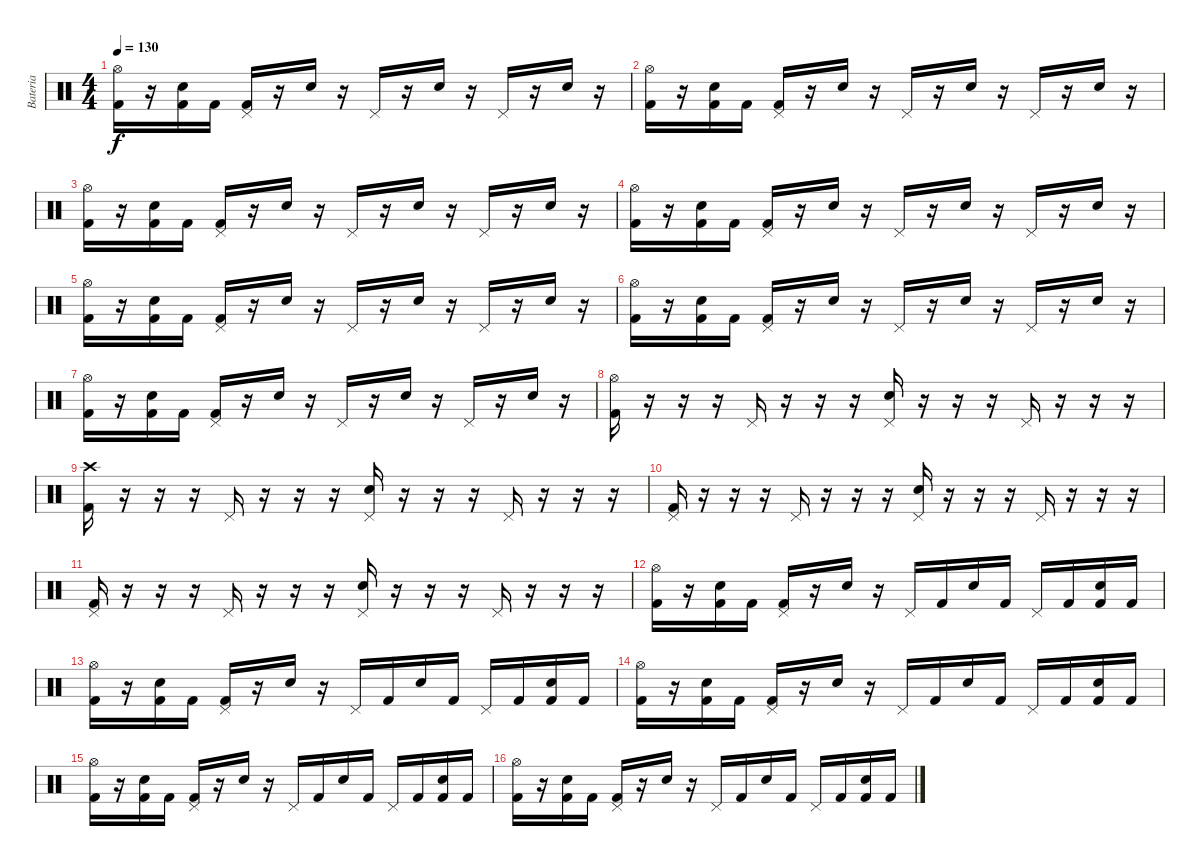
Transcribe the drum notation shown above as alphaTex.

\track ("Bateria" "Bateria") {instrument percussion}
\staff {score}
\articulation defaults
\ts (4 4)
\tempo 130
\clef neutral
\ks c
("Hi-Hat (open)" "Kick (hit) 2").16{dy f} r.16 ("Snare (hit) 2" "Kick (hit) 2").16 "Kick (hit) 2".16 ("Pedal Hi-Hat (hit)" "Kick (hit) 2").16 r.16 "Snare (hit) 2".16 r.16 "Pedal Hi-Hat (hit)".16 r.16 "Snare (hit) 2".16 r.16 "Pedal Hi-Hat (hit)".16 r.16 "Snare (hit) 2".16 r.16 |
("Hi-Hat (open)" "Kick (hit) 2").16 r.16 ("Snare (hit) 2" "Kick (hit) 2").16 "Kick (hit) 2".16 ("Pedal Hi-Hat (hit)" "Kick (hit) 2").16 r.16 "Snare (hit) 2".16 r.16 "Pedal Hi-Hat (hit)".16 r.16 "Snare (hit) 2".16 r.16 "Pedal Hi-Hat (hit)".16 r.16 "Snare (hit) 2".16 r.16 |
("Hi-Hat (open)" "Kick (hit) 2").16 r.16 ("Snare (hit) 2" "Kick (hit) 2").16 "Kick (hit) 2".16 ("Pedal Hi-Hat (hit)" "Kick (hit) 2").16 r.16 "Snare (hit) 2".16 r.16 "Pedal Hi-Hat (hit)".16 r.16 "Snare (hit) 2".16 r.16 "Pedal Hi-Hat (hit)".16 r.16 "Snare (hit) 2".16 r.16 |
("Hi-Hat (open)" "Kick (hit) 2").16 r.16 ("Snare (hit) 2" "Kick (hit) 2").16 "Kick (hit) 2".16 ("Pedal Hi-Hat (hit)" "Kick (hit) 2").16 r.16 "Snare (hit) 2".16 r.16 "Pedal Hi-Hat (hit)".16 r.16 "Snare (hit) 2".16 r.16 "Pedal Hi-Hat (hit)".16 r.16 "Snare (hit) 2".16 r.16 |
("Hi-Hat (open)" "Kick (hit) 2").16 r.16 ("Snare (hit) 2" "Kick (hit) 2").16 "Kick (hit) 2".16 ("Pedal Hi-Hat (hit)" "Kick (hit) 2").16 r.16 "Snare (hit) 2".16 r.16 "Pedal Hi-Hat (hit)".16 r.16 "Snare (hit) 2".16 r.16 "Pedal Hi-Hat (hit)".16 r.16 "Snare (hit) 2".16 r.16 |
("Hi-Hat (open)" "Kick (hit) 2").16 r.16 ("Snare (hit) 2" "Kick (hit) 2").16 "Kick (hit) 2".16 ("Pedal Hi-Hat (hit)" "Kick (hit) 2").16 r.16 "Snare (hit) 2".16 r.16 "Pedal Hi-Hat (hit)".16 r.16 "Snare (hit) 2".16 r.16 "Pedal Hi-Hat (hit)".16 r.16 "Snare (hit) 2".16 r.16 |
("Hi-Hat (open)" "Kick (hit) 2").16 r.16 ("Snare (hit) 2" "Kick (hit) 2").16 "Kick (hit) 2".16 ("Pedal Hi-Hat (hit)" "Kick (hit) 2").16 r.16 "Snare (hit) 2".16 r.16 "Pedal Hi-Hat (hit)".16 r.16 "Snare (hit) 2".16 r.16 "Pedal Hi-Hat (hit)".16 r.16 "Snare (hit) 2".16 r.16 |
("Hi-Hat (open)" "Kick (hit) 2").16 r.16 r.16 r.16 "Pedal Hi-Hat (hit)".16 r.16 r.16 r.16 ("Pedal Hi-Hat (hit)" "Snare (hit) 2").16 r.16 r.16 r.16 "Pedal Hi-Hat (hit)".16 r.16 r.16 r.16 |
("Crash high (hit)" "Kick (hit) 2").16 r.16 r.16 r.16 "Pedal Hi-Hat (hit)".16 r.16 r.16 r.16 ("Pedal Hi-Hat (hit)" "Snare (hit) 2").16 r.16 r.16 r.16 "Pedal Hi-Hat (hit)".16 r.16 r.16 r.16 |
("Pedal Hi-Hat (hit)" "Kick (hit) 2").16 r.16 r.16 r.16 "Pedal Hi-Hat (hit)".16 r.16 r.16 r.16 ("Pedal Hi-Hat (hit)" "Snare (hit) 2").16 r.16 r.16 r.16 "Pedal Hi-Hat (hit)".16 r.16 r.16 r.16 |
("Pedal Hi-Hat (hit)" "Kick (hit) 2").16 r.16 r.16 r.16 "Pedal Hi-Hat (hit)".16 r.16 r.16 r.16 ("Pedal Hi-Hat (hit)" "Snare (hit) 2").16 r.16 r.16 r.16 "Pedal Hi-Hat (hit)".16 r.16 r.16 r.16 |
("Hi-Hat (open)" "Kick (hit) 2").16 r.16 ("Snare (hit) 2" "Kick (hit) 2").16 "Kick (hit) 2".16 ("Pedal Hi-Hat (hit)" "Kick (hit) 2").16 r.16 "Snare (hit) 2".16 r.16 "Pedal Hi-Hat (hit)".16 "Kick (hit) 2".16 "Snare (hit) 2".16 "Kick (hit) 2".16 "Pedal Hi-Hat (hit)".16 "Kick (hit) 2".16 ("Snare (hit) 2" "Kick (hit) 2").16 "Kick (hit) 2".16 |
("Hi-Hat (open)" "Kick (hit) 2").16 r.16 ("Snare (hit) 2" "Kick (hit) 2").16 "Kick (hit) 2".16 ("Pedal Hi-Hat (hit)" "Kick (hit) 2").16 r.16 "Snare (hit) 2".16 r.16 "Pedal Hi-Hat (hit)".16 "Kick (hit) 2".16 "Snare (hit) 2".16 "Kick (hit) 2".16 "Pedal Hi-Hat (hit)".16 "Kick (hit) 2".16 ("Snare (hit) 2" "Kick (hit) 2").16 "Kick (hit) 2".16 |
("Hi-Hat (open)" "Kick (hit) 2").16 r.16 ("Snare (hit) 2" "Kick (hit) 2").16 "Kick (hit) 2".16 ("Pedal Hi-Hat (hit)" "Kick (hit) 2").16 r.16 "Snare (hit) 2".16 r.16 "Pedal Hi-Hat (hit)".16 "Kick (hit) 2".16 "Snare (hit) 2".16 "Kick (hit) 2".16 "Pedal Hi-Hat (hit)".16 "Kick (hit) 2".16 ("Snare (hit) 2" "Kick (hit) 2").16 "Kick (hit) 2".16 |
("Hi-Hat (open)" "Kick (hit) 2").16 r.16 ("Snare (hit) 2" "Kick (hit) 2").16 "Kick (hit) 2".16 ("Pedal Hi-Hat (hit)" "Kick (hit) 2").16 r.16 "Snare (hit) 2".16 r.16 "Pedal Hi-Hat (hit)".16 "Kick (hit) 2".16 "Snare (hit) 2".16 "Kick (hit) 2".16 "Pedal Hi-Hat (hit)".16 "Kick (hit) 2".16 ("Snare (hit) 2" "Kick (hit) 2").16 "Kick (hit) 2".16 |
("Hi-Hat (open)" "Kick (hit) 2").16 r.16 ("Snare (hit) 2" "Kick (hit) 2").16 "Kick (hit) 2".16 ("Pedal Hi-Hat (hit)" "Kick (hit) 2").16 r.16 "Snare (hit) 2".16 r.16 "Pedal Hi-Hat (hit)".16 "Kick (hit) 2".16 "Snare (hit) 2".16 "Kick (hit) 2".16 "Pedal Hi-Hat (hit)".16 "Kick (hit) 2".16 ("Snare (hit) 2" "Kick (hit) 2").16 "Kick (hit) 2".16
